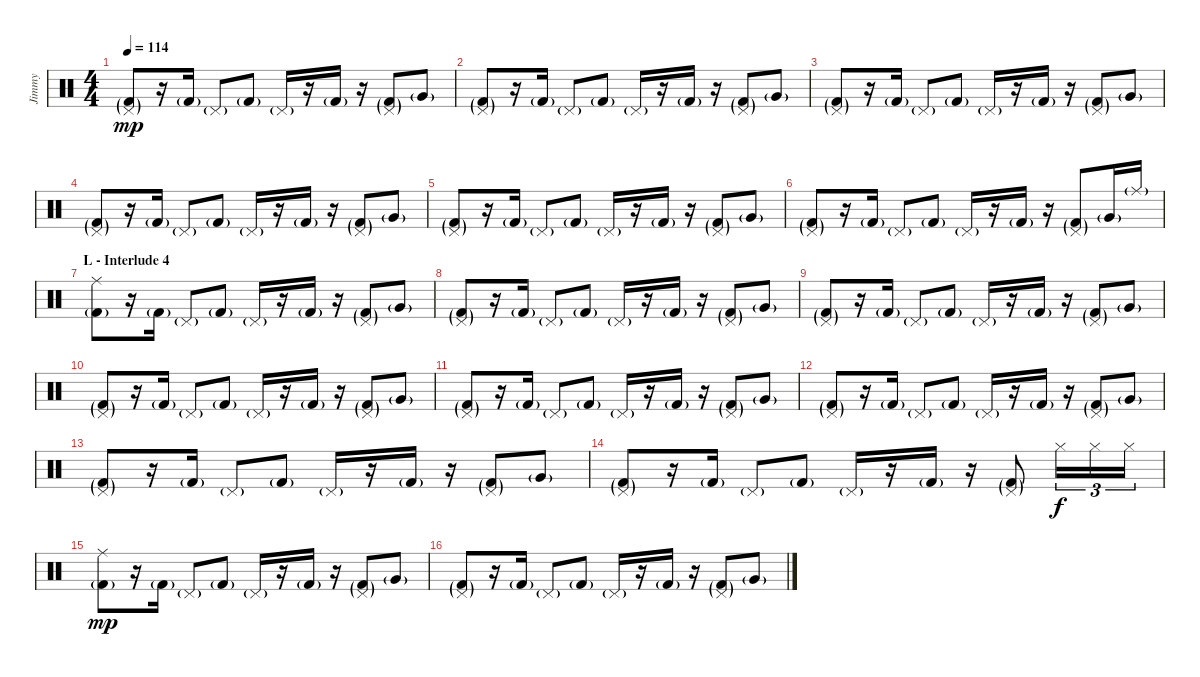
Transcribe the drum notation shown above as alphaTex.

\track ("Jimmy" "Jimmy") {instrument percussion}
\staff {score}
\articulation defaults
\ts (4 4)
\tempo 114
\clef neutral
\ks c
("Pedal Hi-Hat (hit)"{g} "Kick (hit) 2"{g}).8{dy mp} r.16 "Kick (hit) 2"{g}.16 "Pedal Hi-Hat (hit)"{g}.8 "Kick (hit) 2"{g}.8 "Pedal Hi-Hat (hit)"{g}.16 r.16 "Kick (hit) 2"{g}.16 r.16 ("Pedal Hi-Hat (hit)"{g} "Kick (hit) 2"{g}).8 "Very Low Tom (hit)"{g}.8 |
("Pedal Hi-Hat (hit)"{g} "Kick (hit) 2"{g}).8 r.16 "Kick (hit) 2"{g}.16 "Pedal Hi-Hat (hit)"{g}.8 "Kick (hit) 2"{g}.8 "Pedal Hi-Hat (hit)"{g}.16 r.16 "Kick (hit) 2"{g}.16 r.16 ("Pedal Hi-Hat (hit)"{g} "Kick (hit) 2"{g}).8 "Very Low Tom (hit)"{g}.8 |
("Pedal Hi-Hat (hit)"{g} "Kick (hit) 2"{g}).8 r.16 "Kick (hit) 2"{g}.16 "Pedal Hi-Hat (hit)"{g}.8 "Kick (hit) 2"{g}.8 "Pedal Hi-Hat (hit)"{g}.16 r.16 "Kick (hit) 2"{g}.16 r.16 ("Pedal Hi-Hat (hit)"{g} "Kick (hit) 2"{g}).8 "Very Low Tom (hit)"{g}.8 |
("Pedal Hi-Hat (hit)"{g} "Kick (hit) 2"{g}).8 r.16 "Kick (hit) 2"{g}.16 "Pedal Hi-Hat (hit)"{g}.8 "Kick (hit) 2"{g}.8 "Pedal Hi-Hat (hit)"{g}.16 r.16 "Kick (hit) 2"{g}.16 r.16 ("Pedal Hi-Hat (hit)"{g} "Kick (hit) 2"{g}).8 "Very Low Tom (hit)"{g}.8 |
("Pedal Hi-Hat (hit)"{g} "Kick (hit) 2"{g}).8 r.16 "Kick (hit) 2"{g}.16 "Pedal Hi-Hat (hit)"{g}.8 "Kick (hit) 2"{g}.8 "Pedal Hi-Hat (hit)"{g}.16 r.16 "Kick (hit) 2"{g}.16 r.16 ("Pedal Hi-Hat (hit)"{g} "Kick (hit) 2"{g}).8 "Very Low Tom (hit)"{g}.8 |
("Pedal Hi-Hat (hit)"{g} "Kick (hit) 2"{g}).8 r.16 "Kick (hit) 2"{g}.16 "Pedal Hi-Hat (hit)"{g}.8 "Kick (hit) 2"{g}.8 "Pedal Hi-Hat (hit)"{g}.16 r.16 "Kick (hit) 2"{g}.16 r.16 ("Pedal Hi-Hat (hit)"{g} "Kick (hit) 2"{g}).8 "Very Low Tom (hit)"{g}.16 "Ride (middle)"{g}.16 |
\section ("" "L - Interlude 4")
("Ride (middle)" "Kick (hit) 2"{g}).8 r.16 "Kick (hit) 2"{g}.16 "Pedal Hi-Hat (hit)"{g}.8 "Kick (hit) 2"{g}.8 "Pedal Hi-Hat (hit)"{g}.16 r.16 "Kick (hit) 2"{g}.16 r.16 ("Pedal Hi-Hat (hit)"{g} "Kick (hit) 2"{g}).8 "Very Low Tom (hit)"{g}.8 |
("Pedal Hi-Hat (hit)"{g} "Kick (hit) 2"{g}).8 r.16 "Kick (hit) 2"{g}.16 "Pedal Hi-Hat (hit)"{g}.8 "Kick (hit) 2"{g}.8 "Pedal Hi-Hat (hit)"{g}.16 r.16 "Kick (hit) 2"{g}.16 r.16 ("Pedal Hi-Hat (hit)"{g} "Kick (hit) 2"{g}).8 "Very Low Tom (hit)"{g}.8 |
("Pedal Hi-Hat (hit)"{g} "Kick (hit) 2"{g}).8 r.16 "Kick (hit) 2"{g}.16 "Pedal Hi-Hat (hit)"{g}.8 "Kick (hit) 2"{g}.8 "Pedal Hi-Hat (hit)"{g}.16 r.16 "Kick (hit) 2"{g}.16 r.16 ("Pedal Hi-Hat (hit)"{g} "Kick (hit) 2"{g}).8 "Very Low Tom (hit)"{g}.8 |
("Pedal Hi-Hat (hit)"{g} "Kick (hit) 2"{g}).8 r.16 "Kick (hit) 2"{g}.16 "Pedal Hi-Hat (hit)"{g}.8 "Kick (hit) 2"{g}.8 "Pedal Hi-Hat (hit)"{g}.16 r.16 "Kick (hit) 2"{g}.16 r.16 ("Pedal Hi-Hat (hit)"{g} "Kick (hit) 2"{g}).8 "Very Low Tom (hit)"{g}.8 |
("Pedal Hi-Hat (hit)"{g} "Kick (hit) 2"{g}).8 r.16 "Kick (hit) 2"{g}.16 "Pedal Hi-Hat (hit)"{g}.8 "Kick (hit) 2"{g}.8 "Pedal Hi-Hat (hit)"{g}.16 r.16 "Kick (hit) 2"{g}.16 r.16 ("Pedal Hi-Hat (hit)"{g} "Kick (hit) 2"{g}).8 "Very Low Tom (hit)"{g}.8 |
("Pedal Hi-Hat (hit)"{g} "Kick (hit) 2"{g}).8 r.16 "Kick (hit) 2"{g}.16 "Pedal Hi-Hat (hit)"{g}.8 "Kick (hit) 2"{g}.8 "Pedal Hi-Hat (hit)"{g}.16 r.16 "Kick (hit) 2"{g}.16 r.16 ("Pedal Hi-Hat (hit)"{g} "Kick (hit) 2"{g}).8 "Very Low Tom (hit)"{g}.8 |
("Pedal Hi-Hat (hit)"{g} "Kick (hit) 2"{g}).8 r.16 "Kick (hit) 2"{g}.16 "Pedal Hi-Hat (hit)"{g}.8 "Kick (hit) 2"{g}.8 "Pedal Hi-Hat (hit)"{g}.16 r.16 "Kick (hit) 2"{g}.16 r.16 ("Pedal Hi-Hat (hit)"{g} "Kick (hit) 2"{g}).8 "Very Low Tom (hit)"{g}.8 |
("Pedal Hi-Hat (hit)"{g} "Kick (hit) 2"{g}).8 r.16 "Kick (hit) 2"{g}.16 "Pedal Hi-Hat (hit)"{g}.8 "Kick (hit) 2"{g}.8 "Pedal Hi-Hat (hit)"{g}.16 r.16 "Kick (hit) 2"{g}.16 r.16 ("Pedal Hi-Hat (hit)"{g} "Kick (hit) 2"{g}).8 "Hi-Hat (closed)".16{tu (3 2) dy f} "Hi-Hat (closed)".16{tu (3 2)} "Hi-Hat (closed)".16{tu (3 2)} |
("Ride (middle)" "Kick (hit) 2"{g}).8{dy mp} r.16 "Kick (hit) 2"{g}.16 "Pedal Hi-Hat (hit)"{g}.8 "Kick (hit) 2"{g}.8 "Pedal Hi-Hat (hit)"{g}.16 r.16 "Kick (hit) 2"{g}.16 r.16 ("Pedal Hi-Hat (hit)"{g} "Kick (hit) 2"{g}).8 "Very Low Tom (hit)"{g}.8 |
("Pedal Hi-Hat (hit)"{g} "Kick (hit) 2"{g}).8 r.16 "Kick (hit) 2"{g}.16 "Pedal Hi-Hat (hit)"{g}.8 "Kick (hit) 2"{g}.8 "Pedal Hi-Hat (hit)"{g}.16 r.16 "Kick (hit) 2"{g}.16 r.16 ("Pedal Hi-Hat (hit)"{g} "Kick (hit) 2"{g}).8 "Very Low Tom (hit)"{g}.8
